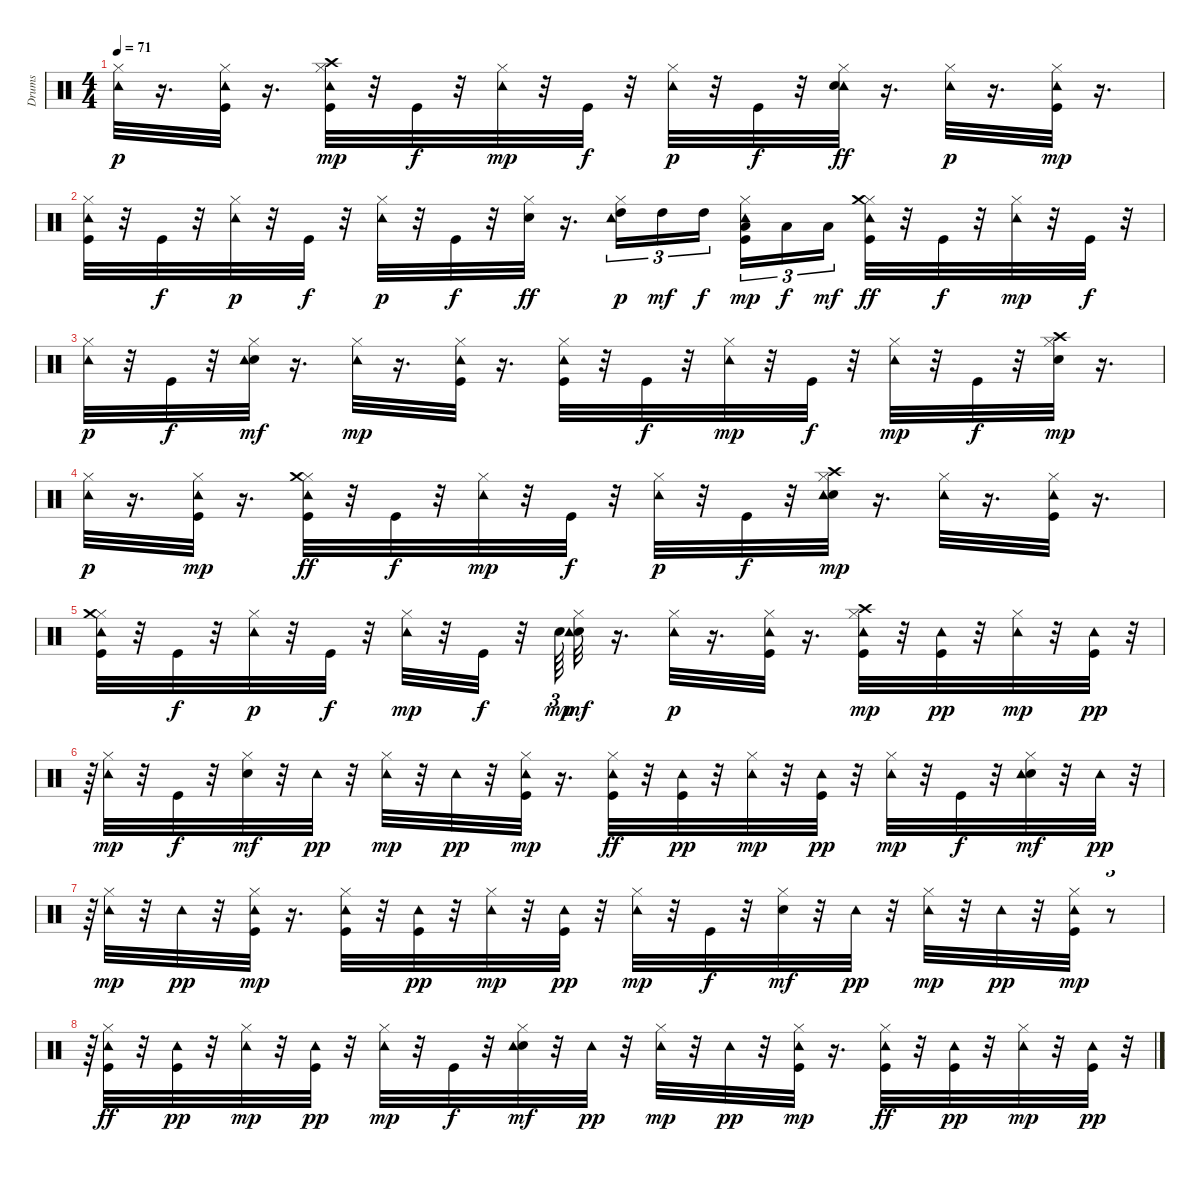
\track ("Drums" "Drums") {instrument percussion}
\staff {score}
\articulation defaults
\ts (4 4)
\tempo 71
\clef neutral
\ks c
("Hi-Hat (closed)" "Tambourine (hit)").32{dy p} r.16{d} ("Hi-Hat (closed)" "Tambourine (hit)" "Kick (hit)").32 r.16{d} ("Kick (hit)" "Tambourine (hit)" "Crash high (hit)" "Hi-Hat (closed)").32{dy mp} r.32 "Kick (hit)".32{dy f} r.32 ("Tambourine (hit)" "Hi-Hat (closed)").32{dy mp} r.32 "Kick (hit)".32{dy f} r.32 ("Hi-Hat (closed)" "Tambourine (hit)").32{dy p} r.32 "Kick (hit)".32{dy f} r.32 ("Hi-Hat (closed)" "Tambourine (hit)" "Snare (hit) 2").32{dy ff} r.16{d} ("Hi-Hat (closed)" "Tambourine (hit)").32{dy p} r.16{d} ("Tambourine (hit)" "Hi-Hat (closed)" "Kick (hit)").32{dy mp} r.16{d} |
("Tambourine (hit)" "Kick (hit)" "Hi-Hat (closed)").32 r.32 "Kick (hit)".32{dy f} r.32 ("Hi-Hat (closed)" "Tambourine (hit)").32{dy p} r.32 "Kick (hit)".32{dy f} r.32 ("Hi-Hat (closed)" "Tambourine (hit)").32{dy p} r.32 "Kick (hit)".32{dy f} r.32 ("Hi-Hat (closed)" "Snare (hit) 2").32{dy ff} r.16{d} ("Hi-Hat (closed)" "High Tom (hit)" "Tambourine (hit)").16{tu (3 2) dy p} "High Tom (hit)".16{tu (3 2) dy mf} "High Tom (hit)".16{tu (3 2) dy f beam splitsecondary} ("Low Tom (hit)" "Tambourine (hit)" "Hi-Hat (closed)" "Kick (hit)").16{tu (3 2) dy mp} "Low Tom (hit)".16{tu (3 2) dy f} "Low Tom (hit)".16{tu (3 2) dy mf} ("Hi-Hat (closed)" "Crash medium (hit)" "Tambourine (hit)" "Kick (hit)").32{dy ff} r.32 "Kick (hit)".32{dy f} r.32 ("Tambourine (hit)" "Hi-Hat (closed)").32{dy mp} r.32 "Kick (hit)".32{dy f} r.32 |
("Hi-Hat (closed)" "Tambourine (hit)").32{dy p} r.32 "Kick (hit)".32{dy f} r.32 ("Hi-Hat (closed)" "Snare (hit) 2" "Tambourine (hit)").32{dy mf} r.16{d} ("Tambourine (hit)" "Hi-Hat (closed)").32{dy mp} r.16{d} ("Kick (hit)" "Tambourine (hit)" "Hi-Hat (closed)").32 r.16{d} ("Kick (hit)" "Hi-Hat (closed)" "Tambourine (hit)").32 r.32 "Kick (hit)".32{dy f} r.32 ("Tambourine (hit)" "Hi-Hat (closed)").32{dy mp} r.32 "Kick (hit)".32{dy f} r.32 ("Tambourine (hit)" "Hi-Hat (closed)").32{dy mp} r.32 "Kick (hit)".32{dy f} r.32 ("Hi-Hat (closed)" "Snare (hit) 2" "Crash high (hit)").32{dy mp} r.16{d} |
("Hi-Hat (closed)" "Tambourine (hit)").32{dy p} r.16{d} ("Tambourine (hit)" "Hi-Hat (closed)" "Kick (hit)").32{dy mp} r.16{d} ("Tambourine (hit)" "Hi-Hat (closed)" "Crash medium (hit)" "Kick (hit)").32{dy ff} r.32 "Kick (hit)".32{dy f} r.32 ("Tambourine (hit)" "Hi-Hat (closed)").32{dy mp} r.32 "Kick (hit)".32{dy f} r.32 ("Hi-Hat (closed)" "Tambourine (hit)").32{dy p} r.32 "Kick (hit)".32{dy f} r.32 ("Snare (hit) 2" "Hi-Hat (closed)" "Tambourine (hit)" "Crash high (hit)").32{dy mp} r.16{d} ("Tambourine (hit)" "Hi-Hat (closed)").32 r.16{d} ("Tambourine (hit)" "Kick (hit)" "Hi-Hat (closed)").32 r.16{d} |
("Tambourine (hit)" "Kick (hit)" "Hi-Hat (closed)" "Crash medium (hit)").32 r.32 "Kick (hit)".32{dy f} r.32 ("Hi-Hat (closed)" "Tambourine (hit)").32{dy p} r.32 "Kick (hit)".32{dy f} r.32 ("Tambourine (hit)" "Hi-Hat (closed)").32{dy mp} r.32 "Kick (hit)".32{dy f} r.32 "Snare (hit) 2".64{tu (3 2) dy mp} ("Snare (hit) 2" "Hi-Hat (closed)" "Tambourine (hit)").32{dy mf} r.16{d} ("Hi-Hat (closed)" "Tambourine (hit)").32{dy p} r.16{d} ("Hi-Hat (closed)" "Kick (hit)" "Tambourine (hit)").32 r.16{d} ("Kick (hit)" "Tambourine (hit)" "Hi-Hat (closed)" "Crash high (hit)").32{dy mp} r.32 ("Tambourine (hit)" "Kick (hit)").32{dy pp} r.32 ("Hi-Hat (closed)" "Tambourine (hit)").32{dy mp} r.32 ("Kick (hit)" "Tambourine (hit)").32{dy pp} r.32{tu (3 2)} |
r.64{tu (3 2)} ("Tambourine (hit)" "Hi-Hat (closed)").32{dy mp} r.32 "Kick (hit)".32{dy f} r.32 ("Hi-Hat (closed)" "Snare (hit) 2").32{dy mf} r.32 "Tambourine (hit)".32{dy pp} r.32 ("Tambourine (hit)" "Hi-Hat (closed)").32{dy mp} r.32 "Tambourine (hit)".32{dy pp} r.32 ("Kick (hit)" "Hi-Hat (closed)" "Tambourine (hit)").32{dy mp} r.16{d} ("Tambourine (hit)" "Hi-Hat (closed)" "Kick (hit)").32{dy ff} r.32 ("Kick (hit)" "Tambourine (hit)").32{dy pp} r.32 ("Tambourine (hit)" "Hi-Hat (closed)").32{dy mp} r.32 ("Tambourine (hit)" "Kick (hit)").32{dy pp} r.32 ("Hi-Hat (closed)" "Tambourine (hit)").32{dy mp} r.32 "Kick (hit)".32{dy f} r.32 ("Hi-Hat (closed)" "Snare (hit) 2" "Tambourine (hit)").32{dy mf} r.32 "Tambourine (hit)".32{dy pp} r.32{tu (3 2)} |
r.64{tu (3 2)} ("Tambourine (hit)" "Hi-Hat (closed)").32{dy mp} r.32 "Tambourine (hit)".32{dy pp} r.32 ("Hi-Hat (closed)" "Kick (hit)" "Tambourine (hit)").32{dy mp} r.16{d} ("Hi-Hat (closed)" "Kick (hit)" "Tambourine (hit)").32 r.32 ("Kick (hit)" "Tambourine (hit)").32{dy pp} r.32 ("Hi-Hat (closed)" "Tambourine (hit)").32{dy mp} r.32 ("Tambourine (hit)" "Kick (hit)").32{dy pp} r.32 ("Hi-Hat (closed)" "Tambourine (hit)").32{dy mp} r.32 "Kick (hit)".32{dy f} r.32 ("Hi-Hat (closed)" "Snare (hit) 2").32{dy mf} r.32 "Tambourine (hit)".32{dy pp} r.32 ("Tambourine (hit)" "Hi-Hat (closed)").32{dy mp} r.32 "Tambourine (hit)".32{dy pp} r.32 ("Tambourine (hit)" "Kick (hit)" "Hi-Hat (closed)").32{dy mp} r.8{tu (3 2)} |
r.64{tu (3 2)} ("Tambourine (hit)" "Hi-Hat (closed)" "Kick (hit)").32{dy ff} r.32 ("Kick (hit)" "Tambourine (hit)").32{dy pp} r.32 ("Tambourine (hit)" "Hi-Hat (closed)").32{dy mp} r.32 ("Kick (hit)" "Tambourine (hit)").32{dy pp} r.32 ("Hi-Hat (closed)" "Tambourine (hit)").32{dy mp} r.32 "Kick (hit)".32{dy f} r.32 ("Hi-Hat (closed)" "Snare (hit) 2" "Tambourine (hit)").32{dy mf} r.32 "Tambourine (hit)".32{dy pp} r.32 ("Tambourine (hit)" "Hi-Hat (closed)").32{dy mp} r.32 "Tambourine (hit)".32{dy pp} r.32 ("Kick (hit)" "Hi-Hat (closed)" "Tambourine (hit)").32{dy mp} r.16{d} ("Tambourine (hit)" "Hi-Hat (closed)" "Kick (hit)").32{dy ff} r.32 ("Tambourine (hit)" "Kick (hit)").32{dy pp} r.32 ("Tambourine (hit)" "Hi-Hat (closed)").32{dy mp} r.32 ("Tambourine (hit)" "Kick (hit)").32{dy pp} r.32{tu (3 2)}
